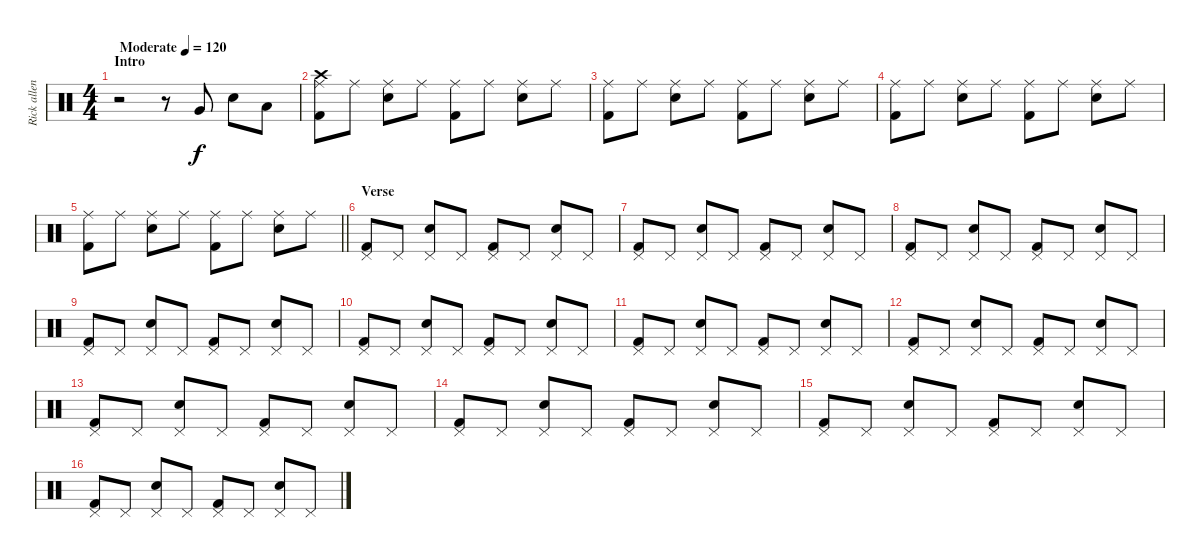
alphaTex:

\track ("Rick allen" "Rick allen") {instrument percussion}
\staff {score}
\articulation defaults
\ts (4 4)
\section ("" "Intro")
\tempo (120 "Moderate")
\clef neutral
\ks c
r.2{dy f} r.8 "Very Low Tom (hit)".8 "Snare (hit) 2".8 "Low Floor Tom (hit)".8 |
("Crash high (hit)" "Ride (middle)" "Kick (hit) 2").8 "Ride (middle)".8 ("Ride (middle)" "Snare (hit) 2").8 "Ride (middle)".8 ("Ride (middle)" "Kick (hit) 2").8 "Ride (middle)".8 ("Ride (middle)" "Snare (hit) 2").8 "Ride (middle)".8 |
("Ride (middle)" "Kick (hit) 2").8 "Ride (middle)".8 ("Ride (middle)" "Snare (hit) 2").8 "Ride (middle)".8 ("Ride (middle)" "Kick (hit) 2").8 "Ride (middle)".8 ("Ride (middle)" "Snare (hit) 2").8 "Ride (middle)".8 |
("Ride (middle)" "Kick (hit) 2").8 "Ride (middle)".8 ("Ride (middle)" "Snare (hit) 2").8 "Ride (middle)".8 ("Ride (middle)" "Kick (hit) 2").8 "Ride (middle)".8 ("Ride (middle)" "Snare (hit) 2").8 "Ride (middle)".8 |
\barLineRight lightlight
("Ride (middle)" "Kick (hit) 2").8 "Ride (middle)".8 ("Ride (middle)" "Snare (hit) 2").8 "Ride (middle)".8 ("Ride (middle)" "Kick (hit) 2").8 "Ride (middle)".8 ("Ride (middle)" "Snare (hit) 2").8 "Ride (middle)".8 |
\section ("" "Verse")
("Pedal Hi-Hat (hit)" "Kick (hit) 2").8 "Pedal Hi-Hat (hit)".8 ("Pedal Hi-Hat (hit)" "Snare (hit) 2").8 "Pedal Hi-Hat (hit)".8 ("Pedal Hi-Hat (hit)" "Kick (hit) 2").8 "Pedal Hi-Hat (hit)".8 ("Pedal Hi-Hat (hit)" "Snare (hit) 2").8 "Pedal Hi-Hat (hit)".8 |
("Pedal Hi-Hat (hit)" "Kick (hit) 2").8 "Pedal Hi-Hat (hit)".8 ("Pedal Hi-Hat (hit)" "Snare (hit) 2").8 "Pedal Hi-Hat (hit)".8 ("Pedal Hi-Hat (hit)" "Kick (hit) 2").8 "Pedal Hi-Hat (hit)".8 ("Pedal Hi-Hat (hit)" "Snare (hit) 2").8 "Pedal Hi-Hat (hit)".8 |
("Pedal Hi-Hat (hit)" "Kick (hit) 2").8 "Pedal Hi-Hat (hit)".8 ("Pedal Hi-Hat (hit)" "Snare (hit) 2").8 "Pedal Hi-Hat (hit)".8 ("Pedal Hi-Hat (hit)" "Kick (hit) 2").8 "Pedal Hi-Hat (hit)".8 ("Pedal Hi-Hat (hit)" "Snare (hit) 2").8 "Pedal Hi-Hat (hit)".8 |
("Pedal Hi-Hat (hit)" "Kick (hit) 2").8 "Pedal Hi-Hat (hit)".8 ("Pedal Hi-Hat (hit)" "Snare (hit) 2").8 "Pedal Hi-Hat (hit)".8 ("Pedal Hi-Hat (hit)" "Kick (hit) 2").8 "Pedal Hi-Hat (hit)".8 ("Pedal Hi-Hat (hit)" "Snare (hit) 2").8 "Pedal Hi-Hat (hit)".8 |
("Pedal Hi-Hat (hit)" "Kick (hit) 2").8 "Pedal Hi-Hat (hit)".8 ("Pedal Hi-Hat (hit)" "Snare (hit) 2").8 "Pedal Hi-Hat (hit)".8 ("Pedal Hi-Hat (hit)" "Kick (hit) 2").8 "Pedal Hi-Hat (hit)".8 ("Pedal Hi-Hat (hit)" "Snare (hit) 2").8 "Pedal Hi-Hat (hit)".8 |
("Pedal Hi-Hat (hit)" "Kick (hit) 2").8 "Pedal Hi-Hat (hit)".8 ("Pedal Hi-Hat (hit)" "Snare (hit) 2").8 "Pedal Hi-Hat (hit)".8 ("Pedal Hi-Hat (hit)" "Kick (hit) 2").8 "Pedal Hi-Hat (hit)".8 ("Pedal Hi-Hat (hit)" "Snare (hit) 2").8 "Pedal Hi-Hat (hit)".8 |
("Pedal Hi-Hat (hit)" "Kick (hit) 2").8 "Pedal Hi-Hat (hit)".8 ("Pedal Hi-Hat (hit)" "Snare (hit) 2").8 "Pedal Hi-Hat (hit)".8 ("Pedal Hi-Hat (hit)" "Kick (hit) 2").8 "Pedal Hi-Hat (hit)".8 ("Pedal Hi-Hat (hit)" "Snare (hit) 2").8 "Pedal Hi-Hat (hit)".8 |
("Pedal Hi-Hat (hit)" "Kick (hit) 2").8 "Pedal Hi-Hat (hit)".8 ("Pedal Hi-Hat (hit)" "Snare (hit) 2").8 "Pedal Hi-Hat (hit)".8 ("Pedal Hi-Hat (hit)" "Kick (hit) 2").8 "Pedal Hi-Hat (hit)".8 ("Pedal Hi-Hat (hit)" "Snare (hit) 2").8 "Pedal Hi-Hat (hit)".8 |
("Pedal Hi-Hat (hit)" "Kick (hit) 2").8 "Pedal Hi-Hat (hit)".8 ("Pedal Hi-Hat (hit)" "Snare (hit) 2").8 "Pedal Hi-Hat (hit)".8 ("Pedal Hi-Hat (hit)" "Kick (hit) 2").8 "Pedal Hi-Hat (hit)".8 ("Pedal Hi-Hat (hit)" "Snare (hit) 2").8 "Pedal Hi-Hat (hit)".8 |
("Pedal Hi-Hat (hit)" "Kick (hit) 2").8 "Pedal Hi-Hat (hit)".8 ("Pedal Hi-Hat (hit)" "Snare (hit) 2").8 "Pedal Hi-Hat (hit)".8 ("Pedal Hi-Hat (hit)" "Kick (hit) 2").8 "Pedal Hi-Hat (hit)".8 ("Pedal Hi-Hat (hit)" "Snare (hit) 2").8 "Pedal Hi-Hat (hit)".8 |
("Pedal Hi-Hat (hit)" "Kick (hit) 2").8 "Pedal Hi-Hat (hit)".8 ("Pedal Hi-Hat (hit)" "Snare (hit) 2").8 "Pedal Hi-Hat (hit)".8 ("Pedal Hi-Hat (hit)" "Kick (hit) 2").8 "Pedal Hi-Hat (hit)".8 ("Pedal Hi-Hat (hit)" "Snare (hit) 2").8 "Pedal Hi-Hat (hit)".8
